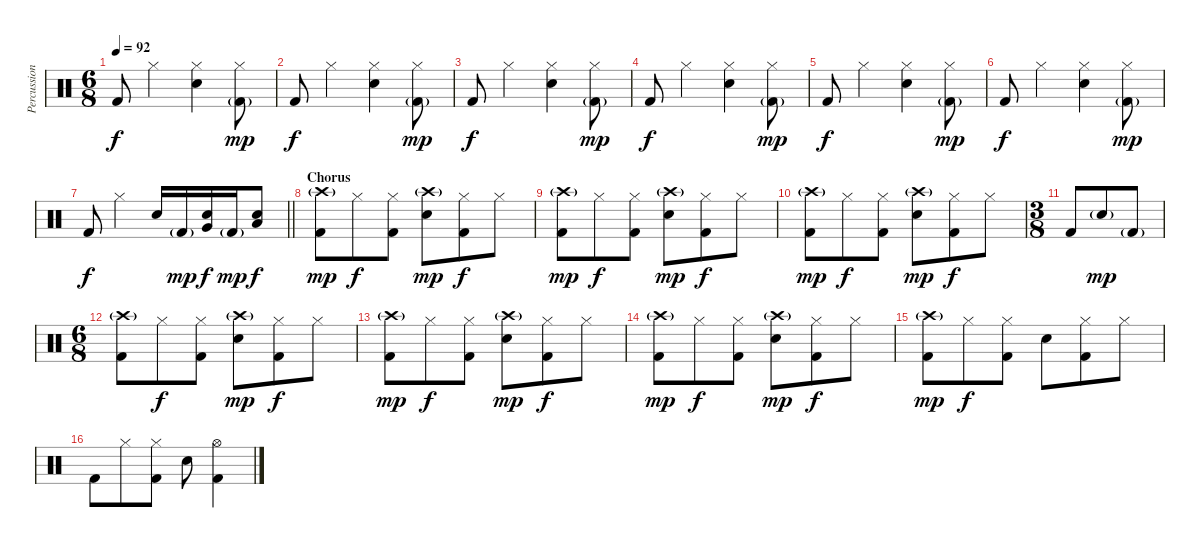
\track ("Percussion" "Percussion") {instrument percussion}
\staff {score}
\articulation defaults
\ts (6 8)
\tempo 92
\clef neutral
\ks c "Kick (hit) 2".8{dy f} "Hi-Hat (closed)".4
("Hi-Hat (closed)" "Snare (hit) 2").4 ("Hi-Hat (closed)" "Kick (hit) 2"{g}).8{dy mp} |
"Kick (hit) 2".8{dy f} "Hi-Hat (closed)".4 ("Hi-Hat (closed)" "Snare (hit) 2").4 ("Hi-Hat (closed)" "Kick (hit) 2"{g}).8{dy mp} |
"Kick (hit) 2".8{dy f} "Hi-Hat (closed)".4 ("Hi-Hat (closed)" "Snare (hit) 2").4 ("Hi-Hat (closed)" "Kick (hit) 2"{g}).8{dy mp} |
"Kick (hit) 2".8{dy f} "Hi-Hat (closed)".4 ("Hi-Hat (closed)" "Snare (hit) 2").4 ("Hi-Hat (closed)" "Kick (hit) 2"{g}).8{dy mp} |
"Kick (hit) 2".8{dy f} "Hi-Hat (closed)".4 ("Hi-Hat (closed)" "Snare (hit) 2").4 ("Hi-Hat (closed)" "Kick (hit) 2"{g}).8{dy mp} |
"Kick (hit) 2".8{dy f} "Hi-Hat (closed)".4 ("Hi-Hat (closed)" "Snare (hit) 2").4 ("Hi-Hat (closed)" "Kick (hit) 2"{g}).8{dy mp} |
\barLineRight lightlight "Kick (hit) 2".8{dy f} "Hi-Hat (closed)".4 "Snare (hit) 2".16 "Kick (hit) 2"{g}.16{dy mp}
("Snare (hit) 2" "Very Low Tom (hit)").16{dy f} "Kick (hit) 2"{g}.16{dy mp} ("Snare (hit) 2" "Low Floor Tom (hit)").8{dy f} |
\section ("" "Chorus")
("Crash high (hit)"{g} "Kick (hit) 2").8{dy mp} "Hi-Hat (closed)".8{dy f} ("Hi-Hat (closed)" "Kick (hit) 2").8 ("Crash high (hit)"{g} "Snare (hit) 2").8{dy mp} ("Hi-Hat (closed)" "Kick (hit) 2").8{dy f} "Hi-Hat (closed)".8 |
("Crash high (hit)"{g} "Kick (hit) 2").8{dy mp} "Hi-Hat (closed)".8{dy f} ("Hi-Hat (closed)" "Kick (hit) 2").8 ("Crash high (hit)"{g} "Snare (hit) 2").8{dy mp} ("Hi-Hat (closed)" "Kick (hit) 2").8{dy f} "Hi-Hat (closed)".8 |
("Crash high (hit)"{g} "Kick (hit) 2").8{dy mp} "Hi-Hat (closed)".8{dy f} ("Hi-Hat (closed)" "Kick (hit) 2").8 ("Crash high (hit)"{g} "Snare (hit) 2").8{dy mp} ("Hi-Hat (closed)" "Kick (hit) 2").8{dy f} "Hi-Hat (closed)".8 |
\ts (3 8)
"Kick (hit) 2".8 "Snare (hit) 2"{g}.8{dy mp} "Kick (hit) 2"{g}.8 |
\ts (6 8)
("Crash high (hit)"{g} "Kick (hit) 2").8 "Hi-Hat (closed)".8{dy f} ("Hi-Hat (closed)" "Kick (hit) 2").8 ("Crash high (hit)"{g} "Snare (hit) 2").8{dy mp} ("Hi-Hat (closed)" "Kick (hit) 2").8{dy f} "Hi-Hat (closed)".8 |
("Crash high (hit)"{g} "Kick (hit) 2").8{dy mp} "Hi-Hat (closed)".8{dy f} ("Hi-Hat (closed)" "Kick (hit) 2").8 ("Crash high (hit)"{g} "Snare (hit) 2").8{dy mp} ("Hi-Hat (closed)" "Kick (hit) 2").8{dy f} "Hi-Hat (closed)".8 |
("Crash high (hit)"{g} "Kick (hit) 2").8{dy mp} "Hi-Hat (closed)".8{dy f} ("Hi-Hat (closed)" "Kick (hit) 2").8 ("Crash high (hit)"{g} "Snare (hit) 2").8{dy mp} ("Hi-Hat (closed)" "Kick (hit) 2").8{dy f} "Hi-Hat (closed)".8 |
("Crash high (hit)"{g} "Kick (hit) 2").8{dy mp} "Hi-Hat (closed)".8{dy f} ("Hi-Hat (closed)" "Kick (hit) 2").8 "Snare (hit) 2".8 ("Hi-Hat (closed)" "Kick (hit) 2").8 "Hi-Hat (closed)".8 |
"Kick (hit) 2".8 "Hi-Hat (closed)".8 ("Hi-Hat (closed)" "Kick (hit) 2").8 "Snare (hit) 2".8 ("Hi-Hat (open)" "Kick (hit) 2").4
